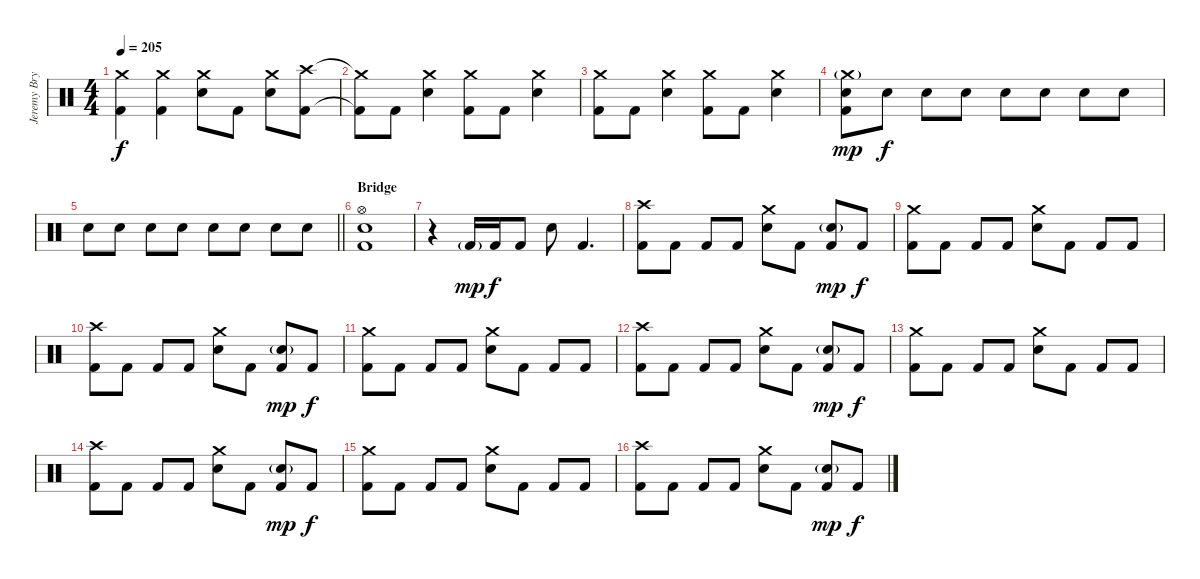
\track ("Jeremy Bryan - Drums" "Jeremy Bry") {instrument percussion}
\staff {score}
\articulation defaults
\ts (4 4)
\tempo 205
\clef neutral
\ks c
("Crash medium (hit)"{t} "Kick (hit) 2"{t}).4{dy f} ("Crash medium (hit)" "Kick (hit) 2").4 ("Crash medium (hit)" "Electric Snare (hit)").8 "Kick (hit) 2".8 ("Crash medium (hit)" "Electric Snare (hit)").8 ("Crash high (hit)" "Kick (hit) 2").8 |
("Crash medium (hit)"{t} "Kick (hit) 2"{t}).8 "Kick (hit) 2".8 ("Crash medium (hit)" "Electric Snare (hit)").4 ("Crash medium (hit)" "Kick (hit) 2").8 "Kick (hit) 2".8 ("Crash medium (hit)" "Electric Snare (hit)").4 |
("Crash medium (hit)" "Kick (hit) 2").8 "Kick (hit) 2".8 ("Crash medium (hit)" "Electric Snare (hit)").4 ("Crash medium (hit)" "Kick (hit) 2").8 "Kick (hit) 2".8 ("Crash medium (hit)" "Electric Snare (hit)").4 |
("Crash medium (hit)"{g} "Electric Snare (hit)" "Kick (hit) 2").8{dy mp} "Electric Snare (hit)".8{dy f volume 6} "Electric Snare (hit)".8{volume 12} "Electric Snare (hit)".8 "Electric Snare (hit)".8 "Electric Snare (hit)".8 "Electric Snare (hit)".8 "Electric Snare (hit)".8 |
\barLineRight lightlight "Electric Snare (hit)".8 "Electric Snare (hit)".8 "Electric Snare (hit)".8 "Electric Snare (hit)".8 "Electric Snare (hit)".8 "Electric Snare (hit)".8 "Electric Snare (hit)".8 "Electric Snare (hit)".8
|
\section ("" "Bridge")
("Hi-Hat (open)" "Electric Snare (hit)" "Kick (hit) 2").1 |
r.4 "Kick (hit) 2"{g}.16{dy mp} "Kick (hit) 2".16{dy f} "Kick (hit) 2".8 "Electric Snare (hit)".8 "Kick (hit) 2".4{d} |
("Crash high (hit)" "Kick (hit) 2").8 "Kick (hit) 2".8 "Kick (hit) 2".8 "Kick (hit) 2".8 ("Crash medium (hit)" "Electric Snare (hit)").8 "Kick (hit) 2".8 ("Electric Snare (hit)"{g} "Kick (hit) 2").8{dy mp} "Kick (hit) 2".8{dy f} |
("Crash medium (hit)" "Kick (hit) 2").8 "Kick (hit) 2".8 "Kick (hit) 2".8 "Kick (hit) 2".8 ("Crash medium (hit)" "Electric Snare (hit)").8 "Kick (hit) 2".8 "Kick (hit) 2".8 "Kick (hit) 2".8 |
("Crash high (hit)" "Kick (hit) 2").8 "Kick (hit) 2".8 "Kick (hit) 2".8 "Kick (hit) 2".8 ("Crash medium (hit)" "Electric Snare (hit)").8 "Kick (hit) 2".8 ("Electric Snare (hit)"{g} "Kick (hit) 2").8{dy mp} "Kick (hit) 2".8{dy f} |
("Crash medium (hit)" "Kick (hit) 2").8 "Kick (hit) 2".8 "Kick (hit) 2".8 "Kick (hit) 2".8 ("Crash medium (hit)" "Electric Snare (hit)").8 "Kick (hit) 2".8 "Kick (hit) 2".8 "Kick (hit) 2".8 |
("Crash high (hit)" "Kick (hit) 2").8 "Kick (hit) 2".8 "Kick (hit) 2".8 "Kick (hit) 2".8 ("Crash medium (hit)" "Electric Snare (hit)").8 "Kick (hit) 2".8 ("Electric Snare (hit)"{g} "Kick (hit) 2").8{dy mp} "Kick (hit) 2".8{dy f} |
("Crash medium (hit)" "Kick (hit) 2").8 "Kick (hit) 2".8 "Kick (hit) 2".8 "Kick (hit) 2".8 ("Crash medium (hit)" "Electric Snare (hit)").8 "Kick (hit) 2".8 "Kick (hit) 2".8 "Kick (hit) 2".8 |
("Crash high (hit)" "Kick (hit) 2").8 "Kick (hit) 2".8 "Kick (hit) 2".8 "Kick (hit) 2".8 ("Crash medium (hit)" "Electric Snare (hit)").8 "Kick (hit) 2".8 ("Electric Snare (hit)"{g} "Kick (hit) 2").8{dy mp} "Kick (hit) 2".8{dy f} |
("Crash medium (hit)" "Kick (hit) 2").8 "Kick (hit) 2".8 "Kick (hit) 2".8 "Kick (hit) 2".8 ("Crash medium (hit)" "Electric Snare (hit)").8 "Kick (hit) 2".8 "Kick (hit) 2".8 "Kick (hit) 2".8 |
("Crash high (hit)" "Kick (hit) 2").8 "Kick (hit) 2".8 "Kick (hit) 2".8 "Kick (hit) 2".8 ("Crash medium (hit)" "Electric Snare (hit)").8 "Kick (hit) 2".8 ("Electric Snare (hit)"{g} "Kick (hit) 2").8{dy mp} "Kick (hit) 2".8{dy f}
